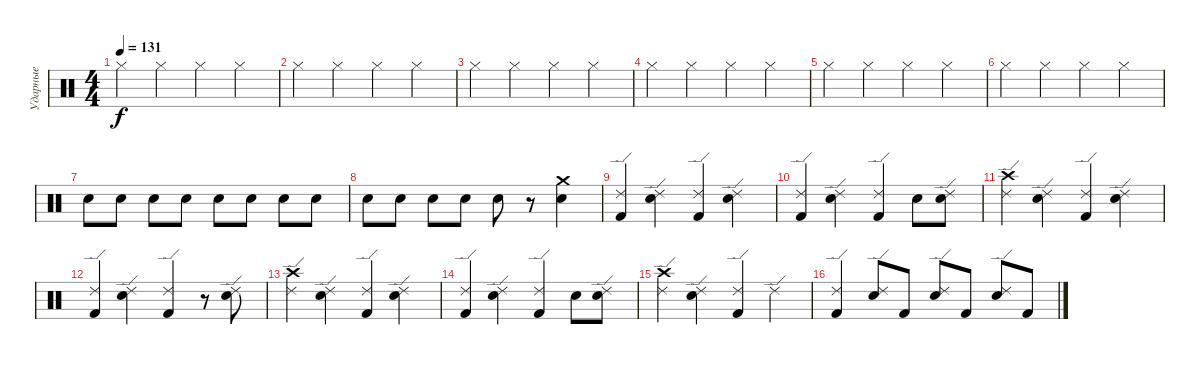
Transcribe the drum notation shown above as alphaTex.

\track ("Ударные" "Ударные") {instrument percussion}
\staff {score}
\articulation defaults
\ts (4 4)
\tempo 131
\clef neutral
\ks c "Hi-Hat (closed)".4{dy f} "Hi-Hat (closed)".4 "Hi-Hat (closed)".4 "Hi-Hat (closed)".4
|
"Hi-Hat (closed)".4 "Hi-Hat (closed)".4 "Hi-Hat (closed)".4 "Hi-Hat (closed)".4 |
"Hi-Hat (closed)".4 "Hi-Hat (closed)".4 "Hi-Hat (closed)".4 "Hi-Hat (closed)".4 |
"Hi-Hat (closed)".4 "Hi-Hat (closed)".4 "Hi-Hat (closed)".4 "Hi-Hat (closed)".4 |
"Hi-Hat (closed)".4 "Hi-Hat (closed)".4 "Hi-Hat (closed)".4 "Hi-Hat (closed)".4 |
"Hi-Hat (closed)".4 "Hi-Hat (closed)".4 "Hi-Hat (closed)".4 "Hi-Hat (closed)".4 |
"Electric Snare (hit)".8 "Electric Snare (hit)".8 "Electric Snare (hit)".8 "Electric Snare (hit)".8 "Electric Snare (hit)".8 "Electric Snare (hit)".8 "Electric Snare (hit)".8 "Electric Snare (hit)".8 |
"Electric Snare (hit)".8 "Electric Snare (hit)".8 "Electric Snare (hit)".8 "Electric Snare (hit)".8 "Electric Snare (hit)".8 r.8 ("Crash medium (hit)" "Electric Snare (hit)").4 |
("Kick (hit) 2" "Ride (edge) 2").4 ("Electric Snare (hit)" "Ride (edge) 2").4 ("Kick (hit) 2" "Ride (edge) 2").4 ("Electric Snare (hit)" "Ride (edge) 2").4 |
("Kick (hit) 2" "Ride (edge) 2").4 ("Electric Snare (hit)" "Ride (edge) 2").4 ("Kick (hit) 2" "Ride (edge) 2").4 "Electric Snare (hit)".8 ("Electric Snare (hit)" "Ride (edge) 2").8 |
("Crash high (hit)" "Ride (edge) 2").4 ("Electric Snare (hit)" "Ride (edge) 2").4 ("Kick (hit) 2" "Ride (edge) 2").4 ("Electric Snare (hit)" "Ride (edge) 2").4 |
("Kick (hit) 2" "Ride (edge) 2").4 ("Electric Snare (hit)" "Ride (edge) 2").4 ("Kick (hit) 2" "Ride (edge) 2").4 r.8 ("Electric Snare (hit)" "Ride (edge) 2").8 |
("Crash high (hit)" "Ride (edge) 2").4 ("Electric Snare (hit)" "Ride (edge) 2").4 ("Kick (hit) 2" "Ride (edge) 2").4 ("Electric Snare (hit)" "Ride (edge) 2").4 |
("Kick (hit) 2" "Ride (edge) 2").4 ("Electric Snare (hit)" "Ride (edge) 2").4 ("Kick (hit) 2" "Ride (edge) 2").4 "Electric Snare (hit)".8 ("Electric Snare (hit)" "Ride (edge) 2").8 |
("Crash high (hit)" "Ride (edge) 2").4 ("Electric Snare (hit)" "Ride (edge) 2").4 ("Kick (hit) 2" "Ride (edge) 2").4 "Ride (edge) 2".4 |
("Kick (hit) 2" "Ride (edge) 2").4 ("Electric Snare (hit)" "Ride (edge) 2").8 "Kick (hit) 2".8 ("Electric Snare (hit)" "Ride (edge) 2").8 "Kick (hit) 2".8 ("Electric Snare (hit)" "Ride (edge) 2").8 "Kick (hit) 2".8
